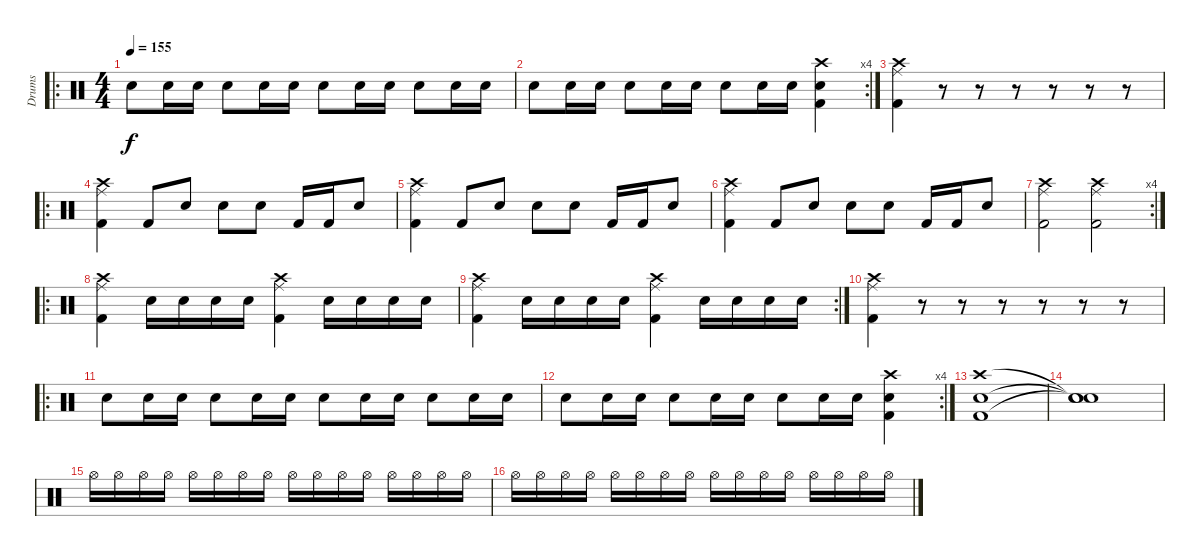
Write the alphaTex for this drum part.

\track ("Drums" "Drums") {instrument percussion}
\staff {score}
\articulation defaults
\ro
\ts (4 4)
\tempo 155
\clef neutral
\ks c "Snare (hit) 2".8{dy f} "Snare (hit) 2".16 "Snare (hit) 2".16 "Snare (hit) 2".8 "Snare (hit) 2".16 "Snare (hit) 2".16 "Snare (hit) 2".8 "Snare (hit) 2".16 "Snare (hit) 2".16 "Snare (hit) 2".8 "Snare (hit) 2".16 "Snare (hit) 2".16
|
\rc 4 "Snare (hit) 2".8 "Snare (hit) 2".16 "Snare (hit) 2".16 "Snare (hit) 2".8 "Snare (hit) 2".16 "Snare (hit) 2".16 "Snare (hit) 2".8 "Snare (hit) 2".16 "Snare (hit) 2".16
("Kick (hit) 2" "Crash high (hit)" "Snare (hit) 2").4 |
("Crash high (hit)" "Kick (hit) 2" "Ride (middle)").4 r.8 r.8 r.8 r.8 r.8 r.8 |
\ro
("Crash high (hit)" "Kick (hit) 2" "Ride (middle)").4 "Kick (hit) 2".8 "Snare (hit) 2".8 "Snare (hit) 2".8 "Snare (hit) 2".8 "Kick (hit) 2".16 "Kick (hit) 2".16 "Snare (hit) 2".8 |
("Crash high (hit)" "Kick (hit) 2" "Ride (middle)").4 "Kick (hit) 2".8 "Snare (hit) 2".8 "Snare (hit) 2".8 "Snare (hit) 2".8 "Kick (hit) 2".16 "Kick (hit) 2".16 "Snare (hit) 2".8 |
("Crash high (hit)" "Kick (hit) 2" "Ride (middle)").4 "Kick (hit) 2".8 "Snare (hit) 2".8 "Snare (hit) 2".8 "Snare (hit) 2".8 "Kick (hit) 2".16 "Kick (hit) 2".16 "Snare (hit) 2".8 |
\rc 4
("Crash high (hit)" "Kick (hit) 2" "Ride (middle)").2 ("Crash high (hit)" "Kick (hit) 2" "Ride (middle)").2 |
\ro
("Crash high (hit)" "Kick (hit) 2" "Ride (middle)").4 "Snare (hit) 2".16 "Snare (hit) 2".16 "Snare (hit) 2".16 "Snare (hit) 2".16 ("Crash high (hit)" "Kick (hit) 2" "Ride (middle)").4 "Snare (hit) 2".16 "Snare (hit) 2".16 "Snare (hit) 2".16 "Snare (hit) 2".16 |
\rc 2
("Crash high (hit)" "Kick (hit) 2" "Ride (middle)").4 "Snare (hit) 2".16 "Snare (hit) 2".16 "Snare (hit) 2".16 "Snare (hit) 2".16 ("Crash high (hit)" "Kick (hit) 2" "Ride (middle)").4 "Snare (hit) 2".16 "Snare (hit) 2".16 "Snare (hit) 2".16 "Snare (hit) 2".16 |
("Crash high (hit)" "Kick (hit) 2" "Ride (middle)").4 r.8 r.8 r.8 r.8 r.8 r.8 |
\ro "Snare (hit) 2".8 "Snare (hit) 2".16 "Snare (hit) 2".16 "Snare (hit) 2".8 "Snare (hit) 2".16 "Snare (hit) 2".16 "Snare (hit) 2".8 "Snare (hit) 2".16 "Snare (hit) 2".16 "Snare (hit) 2".8 "Snare (hit) 2".16 "Snare (hit) 2".16
|
\rc 4 "Snare (hit) 2".8 "Snare (hit) 2".16 "Snare (hit) 2".16 "Snare (hit) 2".8 "Snare (hit) 2".16 "Snare (hit) 2".16 "Snare (hit) 2".8 "Snare (hit) 2".16 "Snare (hit) 2".16
("Kick (hit) 2" "Crash high (hit)" "Snare (hit) 2").4 |
("Kick (hit) 2" "Crash high (hit)" "Snare (hit) 2").1 |
("Snare (hit)"{t} "Snare (hit)"{t} "Snare (hit)"{t}).1 |
"Hi-Hat (open)".16{volume 3} "Hi-Hat (open)".16{volume 4} "Hi-Hat (open)".16{volume 5} "Hi-Hat (open)".16{volume 6} "Hi-Hat (open)".16{volume 7} "Hi-Hat (open)".16{volume 8} "Hi-Hat (open)".16{volume 9} "Hi-Hat (open)".16{volume 10} "Hi-Hat (open)".16{volume 11} "Hi-Hat (open)".16{volume 12} "Hi-Hat (open)".16{volume 13} "Hi-Hat (open)".16{volume 15} "Hi-Hat (open)".16{volume 16} "Hi-Hat (open)".16 "Hi-Hat (open)".16 "Hi-Hat (open)".16 |
"Hi-Hat (open)".16 "Hi-Hat (open)".16 "Hi-Hat (open)".16 "Hi-Hat (open)".16 "Hi-Hat (open)".16 "Hi-Hat (open)".16 "Hi-Hat (open)".16 "Hi-Hat (open)".16 "Hi-Hat (open)".16 "Hi-Hat (open)".16 "Hi-Hat (open)".16 "Hi-Hat (open)".16 "Hi-Hat (open)".16 "Hi-Hat (open)".16 "Hi-Hat (open)".16 "Hi-Hat (open)".16
